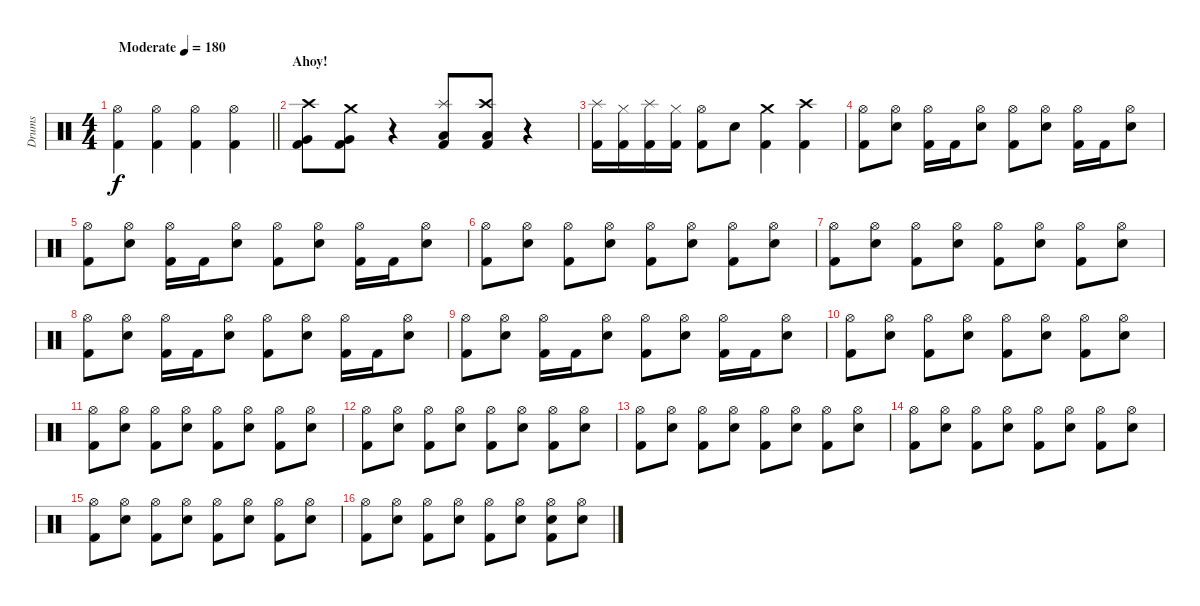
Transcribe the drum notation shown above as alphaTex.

\track ("Drums" "Drums") {instrument percussion}
\staff {score}
\articulation defaults
\ts (4 4)
\tempo (180 "Moderate")
\clef neutral
\barLineRight lightlight
\ks c
("Hi-Hat (open)" "Kick (hit) 2").4{dy f} ("Hi-Hat (open)" "Kick (hit) 2").4 ("Hi-Hat (open)" "Kick (hit) 2").4 ("Hi-Hat (open)" "Kick (hit) 2").4 |
\section ("" "Ahoy!")
("Crash high (hit)" "Very Low Tom (hit)" "Kick (hit) 2").8 ("Crash medium (hit)" "Very Low Tom (hit)" "Kick (hit) 2").8 r.4 ("Splash (hit)" "Low Floor Tom (hit)" "Kick (hit) 2").8 ("Crash high (hit)" "Low Floor Tom (hit)" "Kick (hit) 2").8 r.4 |
("Splash (hit)" "Kick (hit) 2").16 ("Hi-Hat (closed)" "Kick (hit) 2").16 ("Splash (hit)" "Kick (hit) 2").16 ("Hi-Hat (closed)" "Kick (hit) 2").16 ("Hi-Hat (open)" "Kick (hit) 2").8 "Snare (hit) 2".8 ("Crash medium (hit)" "Kick (hit) 2").4 ("Crash high (hit)" "Kick (hit) 2").4 |
("Hi-Hat (open)" "Kick (hit) 2").8 ("Hi-Hat (open)" "Snare (hit) 2").8 ("Hi-Hat (open)" "Kick (hit) 2").16 "Kick (hit) 2".16 ("Hi-Hat (open)" "Snare (hit) 2").8 ("Hi-Hat (open)" "Kick (hit) 2").8 ("Hi-Hat (open)" "Snare (hit) 2").8 ("Hi-Hat (open)" "Kick (hit) 2").16 "Kick (hit) 2".16 ("Hi-Hat (open)" "Snare (hit) 2").8 |
("Hi-Hat (open)" "Kick (hit) 2").8 ("Hi-Hat (open)" "Snare (hit) 2").8 ("Hi-Hat (open)" "Kick (hit) 2").16 "Kick (hit) 2".16 ("Hi-Hat (open)" "Snare (hit) 2").8 ("Hi-Hat (open)" "Kick (hit) 2").8 ("Hi-Hat (open)" "Snare (hit) 2").8 ("Hi-Hat (open)" "Kick (hit) 2").16 "Kick (hit) 2".16 ("Hi-Hat (open)" "Snare (hit) 2").8 |
("Hi-Hat (open)" "Kick (hit) 2").8 ("Hi-Hat (open)" "Snare (hit) 2").8 ("Hi-Hat (open)" "Kick (hit) 2").8 ("Hi-Hat (open)" "Snare (hit) 2").8 ("Hi-Hat (open)" "Kick (hit) 2").8 ("Hi-Hat (open)" "Snare (hit) 2").8 ("Hi-Hat (open)" "Kick (hit) 2").8 ("Hi-Hat (open)" "Snare (hit) 2").8 |
("Hi-Hat (open)" "Kick (hit) 2").8 ("Hi-Hat (open)" "Snare (hit) 2").8 ("Hi-Hat (open)" "Kick (hit) 2").8 ("Hi-Hat (open)" "Snare (hit) 2").8 ("Hi-Hat (open)" "Kick (hit) 2").8 ("Hi-Hat (open)" "Snare (hit) 2").8 ("Hi-Hat (open)" "Kick (hit) 2").8 ("Hi-Hat (open)" "Snare (hit) 2").8 |
("Hi-Hat (open)" "Kick (hit) 2").8 ("Hi-Hat (open)" "Snare (hit) 2").8 ("Hi-Hat (open)" "Kick (hit) 2").16 "Kick (hit) 2".16 ("Hi-Hat (open)" "Snare (hit) 2").8 ("Hi-Hat (open)" "Kick (hit) 2").8 ("Hi-Hat (open)" "Snare (hit) 2").8 ("Hi-Hat (open)" "Kick (hit) 2").16 "Kick (hit) 2".16 ("Hi-Hat (open)" "Snare (hit) 2").8 |
("Hi-Hat (open)" "Kick (hit) 2").8 ("Hi-Hat (open)" "Snare (hit) 2").8 ("Hi-Hat (open)" "Kick (hit) 2").16 "Kick (hit) 2".16 ("Hi-Hat (open)" "Snare (hit) 2").8 ("Hi-Hat (open)" "Kick (hit) 2").8 ("Hi-Hat (open)" "Snare (hit) 2").8 ("Hi-Hat (open)" "Kick (hit) 2").16 "Kick (hit) 2".16 ("Hi-Hat (open)" "Snare (hit) 2").8 |
("Hi-Hat (open)" "Kick (hit) 2").8 ("Hi-Hat (open)" "Snare (hit) 2").8 ("Hi-Hat (open)" "Kick (hit) 2").8 ("Hi-Hat (open)" "Snare (hit) 2").8 ("Hi-Hat (open)" "Kick (hit) 2").8 ("Hi-Hat (open)" "Snare (hit) 2").8 ("Hi-Hat (open)" "Kick (hit) 2").8 ("Hi-Hat (open)" "Snare (hit) 2").8 |
("Hi-Hat (open)" "Kick (hit) 2").8 ("Hi-Hat (open)" "Snare (hit) 2").8 ("Hi-Hat (open)" "Kick (hit) 2").8 ("Hi-Hat (open)" "Snare (hit) 2").8 ("Hi-Hat (open)" "Kick (hit) 2").8 ("Hi-Hat (open)" "Snare (hit) 2").8 ("Hi-Hat (open)" "Kick (hit) 2").8 ("Hi-Hat (open)" "Snare (hit) 2").8 |
("Hi-Hat (open)" "Kick (hit) 2").8 ("Hi-Hat (open)" "Snare (hit) 2").8 ("Hi-Hat (open)" "Kick (hit) 2").8 ("Hi-Hat (open)" "Snare (hit) 2").8 ("Hi-Hat (open)" "Kick (hit) 2").8 ("Hi-Hat (open)" "Snare (hit) 2").8 ("Hi-Hat (open)" "Kick (hit) 2").8 ("Hi-Hat (open)" "Snare (hit) 2").8 |
("Hi-Hat (open)" "Kick (hit) 2").8 ("Hi-Hat (open)" "Snare (hit) 2").8 ("Hi-Hat (open)" "Kick (hit) 2").8 ("Hi-Hat (open)" "Snare (hit) 2").8 ("Hi-Hat (open)" "Kick (hit) 2").8 ("Hi-Hat (open)" "Snare (hit) 2").8 ("Hi-Hat (open)" "Kick (hit) 2").8 ("Hi-Hat (open)" "Snare (hit) 2").8 |
("Hi-Hat (open)" "Kick (hit) 2").8 ("Hi-Hat (open)" "Snare (hit) 2").8 ("Hi-Hat (open)" "Kick (hit) 2").8 ("Hi-Hat (open)" "Snare (hit) 2").8 ("Hi-Hat (open)" "Kick (hit) 2").8 ("Hi-Hat (open)" "Snare (hit) 2").8 ("Hi-Hat (open)" "Kick (hit) 2").8 ("Hi-Hat (open)" "Snare (hit) 2").8 |
("Hi-Hat (open)" "Kick (hit) 2").8 ("Hi-Hat (open)" "Snare (hit) 2").8 ("Hi-Hat (open)" "Kick (hit) 2").8 ("Hi-Hat (open)" "Snare (hit) 2").8 ("Hi-Hat (open)" "Kick (hit) 2").8 ("Hi-Hat (open)" "Snare (hit) 2").8 ("Hi-Hat (open)" "Kick (hit) 2").8 ("Hi-Hat (open)" "Snare (hit) 2").8 |
("Hi-Hat (open)" "Kick (hit) 2").8 ("Hi-Hat (open)" "Snare (hit) 2").8 ("Hi-Hat (open)" "Kick (hit) 2").8 ("Hi-Hat (open)" "Snare (hit) 2").8 ("Hi-Hat (open)" "Kick (hit) 2").8 ("Hi-Hat (open)" "Snare (hit) 2").8 ("Hi-Hat (open)" "Snare (hit) 2" "Kick (hit) 2").8 ("Hi-Hat (open)" "Snare (hit) 2").8
